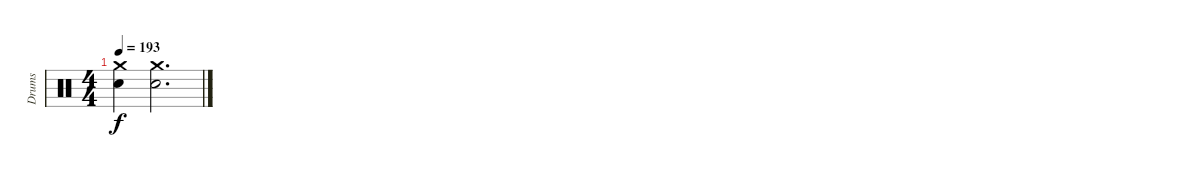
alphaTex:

\track ("Drums" "Drums") {instrument percussion}
\staff {score}
\articulation defaults
\ts (4 4)
\tempo 193
\clef neutral
\ks c
("Crash medium (hit)" "Electric Snare (hit)").4{dy f} ("Crash medium (hit)" "Electric Snare (hit)").2{d}
